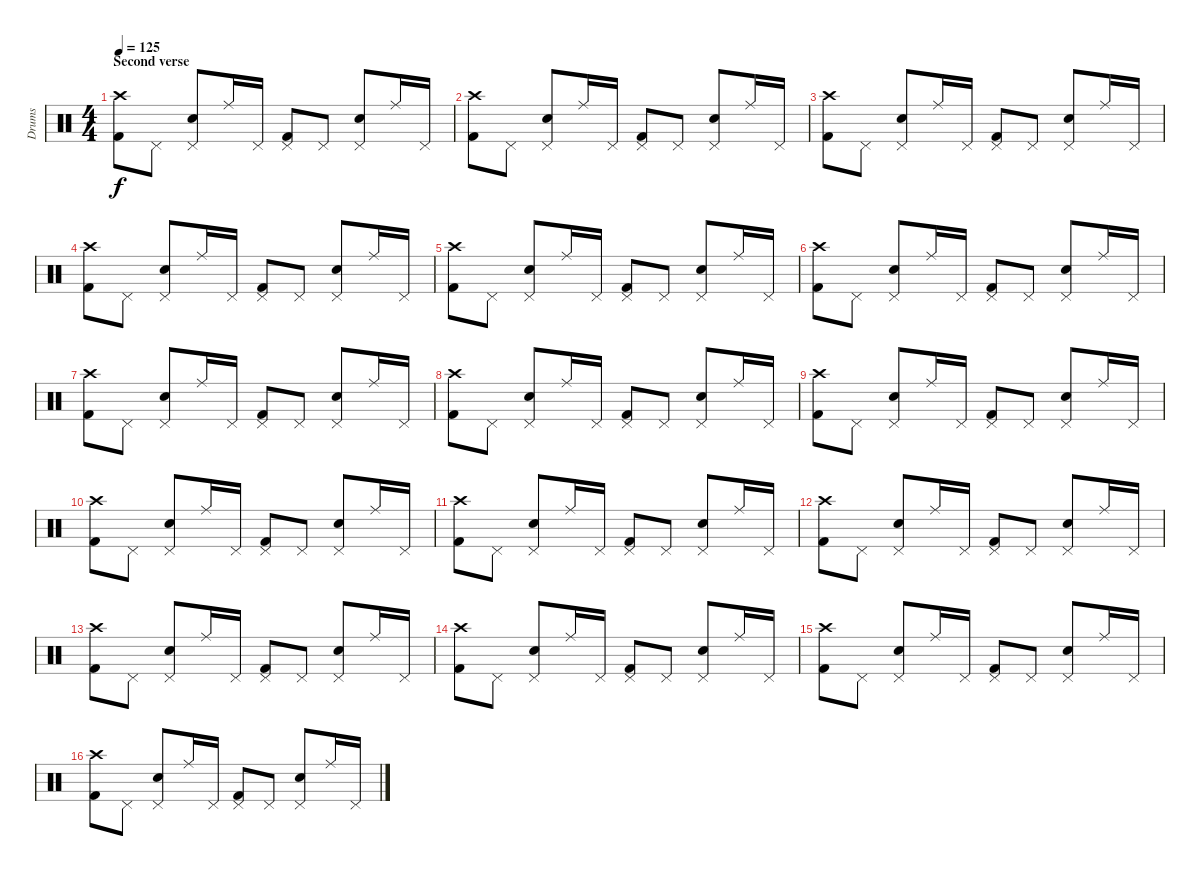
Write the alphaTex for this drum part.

\track ("Drums" "Drums") {instrument percussion}
\staff {score}
\articulation defaults
\ts (4 4)
\section ("" "Second verse")
\tempo 125
\clef neutral
\ks c
("Crash high (hit)" "Kick (hit) 2").8{dy f} "Pedal Hi-Hat (hit)".8 ("Pedal Hi-Hat (hit)" "Snare (hit) 2").8 "Ride (middle)".16 "Pedal Hi-Hat (hit)".16 ("Pedal Hi-Hat (hit)" "Kick (hit) 2").8 "Pedal Hi-Hat (hit)".8 ("Pedal Hi-Hat (hit)" "Snare (hit) 2").8 "Ride (middle)".16 "Pedal Hi-Hat (hit)".16 |
("Crash high (hit)" "Kick (hit) 2").8 "Pedal Hi-Hat (hit)".8 ("Pedal Hi-Hat (hit)" "Snare (hit) 2").8 "Ride (middle)".16 "Pedal Hi-Hat (hit)".16 ("Pedal Hi-Hat (hit)" "Kick (hit) 2").8 "Pedal Hi-Hat (hit)".8 ("Pedal Hi-Hat (hit)" "Snare (hit) 2").8 "Ride (middle)".16 "Pedal Hi-Hat (hit)".16 |
("Crash high (hit)" "Kick (hit) 2").8 "Pedal Hi-Hat (hit)".8 ("Pedal Hi-Hat (hit)" "Snare (hit) 2").8 "Ride (middle)".16 "Pedal Hi-Hat (hit)".16 ("Pedal Hi-Hat (hit)" "Kick (hit) 2").8 "Pedal Hi-Hat (hit)".8 ("Pedal Hi-Hat (hit)" "Snare (hit) 2").8 "Ride (middle)".16 "Pedal Hi-Hat (hit)".16 |
("Crash high (hit)" "Kick (hit) 2").8 "Pedal Hi-Hat (hit)".8 ("Pedal Hi-Hat (hit)" "Snare (hit) 2").8 "Ride (middle)".16 "Pedal Hi-Hat (hit)".16 ("Pedal Hi-Hat (hit)" "Kick (hit) 2").8 "Pedal Hi-Hat (hit)".8 ("Pedal Hi-Hat (hit)" "Snare (hit) 2").8 "Ride (middle)".16 "Pedal Hi-Hat (hit)".16 |
("Crash high (hit)" "Kick (hit) 2").8 "Pedal Hi-Hat (hit)".8 ("Pedal Hi-Hat (hit)" "Snare (hit) 2").8 "Ride (middle)".16 "Pedal Hi-Hat (hit)".16 ("Pedal Hi-Hat (hit)" "Kick (hit) 2").8 "Pedal Hi-Hat (hit)".8 ("Pedal Hi-Hat (hit)" "Snare (hit) 2").8 "Ride (middle)".16 "Pedal Hi-Hat (hit)".16 |
("Crash high (hit)" "Kick (hit) 2").8 "Pedal Hi-Hat (hit)".8 ("Pedal Hi-Hat (hit)" "Snare (hit) 2").8 "Ride (middle)".16 "Pedal Hi-Hat (hit)".16 ("Pedal Hi-Hat (hit)" "Kick (hit) 2").8 "Pedal Hi-Hat (hit)".8 ("Pedal Hi-Hat (hit)" "Snare (hit) 2").8 "Ride (middle)".16 "Pedal Hi-Hat (hit)".16 |
("Crash high (hit)" "Kick (hit) 2").8 "Pedal Hi-Hat (hit)".8 ("Pedal Hi-Hat (hit)" "Snare (hit) 2").8 "Ride (middle)".16 "Pedal Hi-Hat (hit)".16 ("Pedal Hi-Hat (hit)" "Kick (hit) 2").8 "Pedal Hi-Hat (hit)".8 ("Pedal Hi-Hat (hit)" "Snare (hit) 2").8 "Ride (middle)".16 "Pedal Hi-Hat (hit)".16 |
("Crash high (hit)" "Kick (hit) 2").8 "Pedal Hi-Hat (hit)".8 ("Pedal Hi-Hat (hit)" "Snare (hit) 2").8 "Ride (middle)".16 "Pedal Hi-Hat (hit)".16 ("Pedal Hi-Hat (hit)" "Kick (hit) 2").8 "Pedal Hi-Hat (hit)".8 ("Pedal Hi-Hat (hit)" "Snare (hit) 2").8 "Ride (middle)".16 "Pedal Hi-Hat (hit)".16 |
("Crash high (hit)" "Kick (hit) 2").8 "Pedal Hi-Hat (hit)".8 ("Pedal Hi-Hat (hit)" "Snare (hit) 2").8 "Ride (middle)".16 "Pedal Hi-Hat (hit)".16 ("Pedal Hi-Hat (hit)" "Kick (hit) 2").8 "Pedal Hi-Hat (hit)".8 ("Pedal Hi-Hat (hit)" "Snare (hit) 2").8 "Ride (middle)".16 "Pedal Hi-Hat (hit)".16 |
("Crash high (hit)" "Kick (hit) 2").8 "Pedal Hi-Hat (hit)".8 ("Pedal Hi-Hat (hit)" "Snare (hit) 2").8 "Ride (middle)".16 "Pedal Hi-Hat (hit)".16 ("Pedal Hi-Hat (hit)" "Kick (hit) 2").8 "Pedal Hi-Hat (hit)".8 ("Pedal Hi-Hat (hit)" "Snare (hit) 2").8 "Ride (middle)".16 "Pedal Hi-Hat (hit)".16 |
("Crash high (hit)" "Kick (hit) 2").8 "Pedal Hi-Hat (hit)".8 ("Pedal Hi-Hat (hit)" "Snare (hit) 2").8 "Ride (middle)".16 "Pedal Hi-Hat (hit)".16 ("Pedal Hi-Hat (hit)" "Kick (hit) 2").8 "Pedal Hi-Hat (hit)".8 ("Pedal Hi-Hat (hit)" "Snare (hit) 2").8 "Ride (middle)".16 "Pedal Hi-Hat (hit)".16 |
("Crash high (hit)" "Kick (hit) 2").8 "Pedal Hi-Hat (hit)".8 ("Pedal Hi-Hat (hit)" "Snare (hit) 2").8 "Ride (middle)".16 "Pedal Hi-Hat (hit)".16 ("Pedal Hi-Hat (hit)" "Kick (hit) 2").8 "Pedal Hi-Hat (hit)".8 ("Pedal Hi-Hat (hit)" "Snare (hit) 2").8 "Ride (middle)".16 "Pedal Hi-Hat (hit)".16 |
("Crash high (hit)" "Kick (hit) 2").8 "Pedal Hi-Hat (hit)".8 ("Pedal Hi-Hat (hit)" "Snare (hit) 2").8 "Ride (middle)".16 "Pedal Hi-Hat (hit)".16 ("Pedal Hi-Hat (hit)" "Kick (hit) 2").8 "Pedal Hi-Hat (hit)".8 ("Pedal Hi-Hat (hit)" "Snare (hit) 2").8 "Ride (middle)".16 "Pedal Hi-Hat (hit)".16 |
("Crash high (hit)" "Kick (hit) 2").8 "Pedal Hi-Hat (hit)".8 ("Pedal Hi-Hat (hit)" "Snare (hit) 2").8 "Ride (middle)".16 "Pedal Hi-Hat (hit)".16 ("Pedal Hi-Hat (hit)" "Kick (hit) 2").8 "Pedal Hi-Hat (hit)".8 ("Pedal Hi-Hat (hit)" "Snare (hit) 2").8 "Ride (middle)".16 "Pedal Hi-Hat (hit)".16 |
("Crash high (hit)" "Kick (hit) 2").8 "Pedal Hi-Hat (hit)".8 ("Pedal Hi-Hat (hit)" "Snare (hit) 2").8 "Ride (middle)".16 "Pedal Hi-Hat (hit)".16 ("Pedal Hi-Hat (hit)" "Kick (hit) 2").8 "Pedal Hi-Hat (hit)".8 ("Pedal Hi-Hat (hit)" "Snare (hit) 2").8 "Ride (middle)".16 "Pedal Hi-Hat (hit)".16 |
("Crash high (hit)" "Kick (hit) 2").8 "Pedal Hi-Hat (hit)".8 ("Pedal Hi-Hat (hit)" "Snare (hit) 2").8 "Ride (middle)".16 "Pedal Hi-Hat (hit)".16 ("Pedal Hi-Hat (hit)" "Kick (hit) 2").8 "Pedal Hi-Hat (hit)".8 ("Pedal Hi-Hat (hit)" "Snare (hit) 2").8 "Ride (middle)".16 "Pedal Hi-Hat (hit)".16
